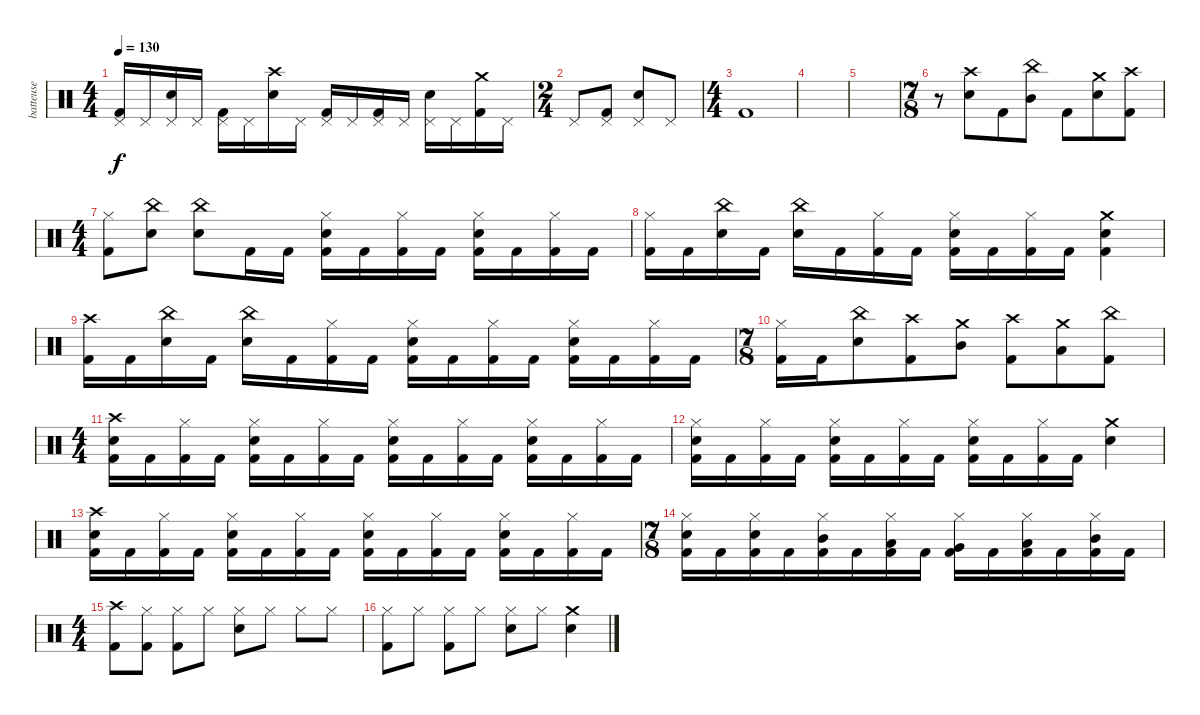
\track ("batteuse" "batteuse") {instrument percussion}
\staff {score}
\articulation defaults
\ts (4 4)
\tempo 130
\clef neutral
\ks c
("Kick (hit) 2" "Pedal Hi-Hat (hit)").16{dy f} "Pedal Hi-Hat (hit)".16 ("Snare (hit) 2" "Pedal Hi-Hat (hit)").16 "Pedal Hi-Hat (hit)".16 ("Kick (hit) 2" "Pedal Hi-Hat (hit)").16 "Pedal Hi-Hat (hit)".16 ("Crash high (hit)" "Snare (hit) 2").16 "Pedal Hi-Hat (hit)".16 ("Kick (hit) 2" "Pedal Hi-Hat (hit)").16 "Pedal Hi-Hat (hit)".16 ("Kick (hit) 2" "Pedal Hi-Hat (hit)").16 "Pedal Hi-Hat (hit)".16 ("Snare (hit) 2" "Pedal Hi-Hat (hit)").16 "Pedal Hi-Hat (hit)".16 ("Crash medium (hit)" "Kick (hit) 2").16 "Pedal Hi-Hat (hit)".16 |
\ts (2 4)
"Pedal Hi-Hat (hit)".8 ("Kick (hit) 2" "Pedal Hi-Hat (hit)").8 ("Snare (hit) 2" "Pedal Hi-Hat (hit)").8 "Pedal Hi-Hat (hit)".8 |
\ts (4 4)
"Kick (hit) 2".1 |
|
|
\ts (7 8)
r.8 ("Crash high (hit)" "Snare (hit) 2").8 "Kick (hit) 2".8 ("China (hit)" "Mid Tom (hit)").8 "Kick (hit) 2".8 ("Crash medium (hit)" "Snare (hit) 2").8 ("Crash high (hit)" "Kick (hit) 2").8 |
\ts (4 4)
("Kick (hit) 2" "Hi-Hat (closed)").8 ("China (hit)" "Snare (hit) 2").8 ("China (hit)" "Snare (hit) 2").8 "Kick (hit) 2".16 "Kick (hit) 2".16 ("Snare (hit) 2" "Kick (hit) 2" "Hi-Hat (closed)").16 "Kick (hit) 2".16 ("Kick (hit) 2" "Hi-Hat (closed)").16 "Kick (hit) 2".16 ("Snare (hit) 2" "Kick (hit) 2" "Hi-Hat (closed)").16 "Kick (hit) 2".16 ("Kick (hit) 2" "Hi-Hat (closed)").16 "Kick (hit) 2".16 |
("Kick (hit) 2" "Hi-Hat (closed)").16 "Kick (hit) 2".16 ("China (hit)" "Snare (hit) 2").16 "Kick (hit) 2".16 ("China (hit)" "Snare (hit) 2").16 "Kick (hit) 2".16 ("Kick (hit) 2" "Hi-Hat (closed)").16 "Kick (hit) 2".16 ("Snare (hit) 2" "Kick (hit) 2" "Hi-Hat (closed)").16 "Kick (hit) 2".16 ("Kick (hit) 2" "Hi-Hat (closed)").16 "Kick (hit) 2".16 ("Crash medium (hit)" "Snare (hit) 2" "Kick (hit) 2").4 |
("Crash high (hit)" "Kick (hit) 2").16 "Kick (hit) 2".16 ("China (hit)" "Snare (hit) 2").16 "Kick (hit) 2".16 ("China (hit)" "Snare (hit) 2").16 "Kick (hit) 2".16 ("Kick (hit) 2" "Hi-Hat (closed)").16 "Kick (hit) 2".16 ("Snare (hit) 2" "Kick (hit) 2" "Hi-Hat (closed)").16 "Kick (hit) 2".16 ("Kick (hit) 2" "Hi-Hat (closed)").16 "Kick (hit) 2".16 ("Snare (hit) 2" "Kick (hit) 2" "Hi-Hat (closed)").16 "Kick (hit) 2".16 ("Kick (hit) 2" "Hi-Hat (closed)").16 "Kick (hit) 2".16 |
\ts (7 8)
("Kick (hit) 2" "Hi-Hat (closed)").16 "Kick (hit) 2".16 ("China (hit)" "Snare (hit) 2").8 ("Crash high (hit)" "Kick (hit) 2").8 ("Crash medium (hit)" "Mid Tom (hit)").8 ("Crash high (hit)" "Kick (hit) 2").8 ("Crash medium (hit)" "Low Tom (hit)").8 ("China (hit)" "Kick (hit) 2").8 |
\ts (4 4)
("Crash high (hit)" "Snare (hit) 2" "Kick (hit) 2").16 "Kick (hit) 2".16 ("Kick (hit) 2" "Hi-Hat (closed)").16 "Kick (hit) 2".16 ("Snare (hit) 2" "Kick (hit) 2" "Hi-Hat (closed)").16 "Kick (hit) 2".16 ("Kick (hit) 2" "Hi-Hat (closed)").16 "Kick (hit) 2".16 ("Snare (hit) 2" "Kick (hit) 2" "Hi-Hat (closed)").16 "Kick (hit) 2".16 ("Kick (hit) 2" "Hi-Hat (closed)").16 "Kick (hit) 2".16 ("Snare (hit) 2" "Kick (hit) 2" "Hi-Hat (closed)").16 "Kick (hit) 2".16 ("Kick (hit) 2" "Hi-Hat (closed)").16 "Kick (hit) 2".16 |
("Snare (hit) 2" "Kick (hit) 2" "Hi-Hat (closed)").16 "Kick (hit) 2".16 ("Kick (hit) 2" "Hi-Hat (closed)").16 "Kick (hit) 2".16 ("Snare (hit) 2" "Kick (hit) 2" "Hi-Hat (closed)").16 "Kick (hit) 2".16 ("Kick (hit) 2" "Hi-Hat (closed)").16 "Kick (hit) 2".16 ("Snare (hit) 2" "Kick (hit) 2" "Hi-Hat (closed)").16 "Kick (hit) 2".16 ("Kick (hit) 2" "Hi-Hat (closed)").16 "Kick (hit) 2".16 ("Crash medium (hit)" "Snare (hit) 2").4 |
("Crash high (hit)" "Snare (hit) 2" "Kick (hit) 2").16 "Kick (hit) 2".16 ("Kick (hit) 2" "Hi-Hat (closed)").16 "Kick (hit) 2".16 ("Snare (hit) 2" "Kick (hit) 2" "Hi-Hat (closed)").16 "Kick (hit) 2".16 ("Kick (hit) 2" "Hi-Hat (closed)").16 "Kick (hit) 2".16 ("Snare (hit) 2" "Kick (hit) 2" "Hi-Hat (closed)").16 "Kick (hit) 2".16 ("Kick (hit) 2" "Hi-Hat (closed)").16 "Kick (hit) 2".16 ("Snare (hit) 2" "Kick (hit) 2" "Hi-Hat (closed)").16 "Kick (hit) 2".16 ("Kick (hit) 2" "Hi-Hat (closed)").16 "Kick (hit) 2".16 |
\ts (7 8)
("Snare (hit) 2" "Kick (hit) 2" "Hi-Hat (closed)").16 "Kick (hit) 2".16 ("Snare (hit) 2" "Kick (hit) 2" "Hi-Hat (closed)").16 "Kick (hit) 2".16 ("Mid Tom (hit)" "Kick (hit) 2" "Hi-Hat (closed)").16 "Kick (hit) 2".16 ("Low Tom (hit)" "Kick (hit) 2" "Hi-Hat (closed)").16 "Kick (hit) 2".16 ("Very Low Tom (hit)" "Kick (hit) 2" "Hi-Hat (closed)").16 "Kick (hit) 2".16 ("Low Tom (hit)" "Kick (hit) 2" "Hi-Hat (closed)").16 "Kick (hit) 2".16 ("Mid Tom (hit)" "Kick (hit) 2" "Hi-Hat (closed)").16 "Kick (hit) 2".16 |
\ts (4 4)
("Crash high (hit)" "Kick (hit) 2").8 ("Kick (hit) 2" "Hi-Hat (closed)").8 ("Kick (hit) 2" "Hi-Hat (closed)").8 "Hi-Hat (closed)".8 ("Snare (hit) 2" "Hi-Hat (closed)").8 "Hi-Hat (closed)".8 "Hi-Hat (closed)".8 "Hi-Hat (closed)".8 |
("Kick (hit) 2" "Hi-Hat (closed)").8 "Hi-Hat (closed)".8 ("Kick (hit) 2" "Hi-Hat (closed)").8 "Hi-Hat (closed)".8 ("Snare (hit) 2" "Hi-Hat (closed)").8 "Hi-Hat (closed)".8 ("Crash medium (hit)" "Snare (hit) 2").4
